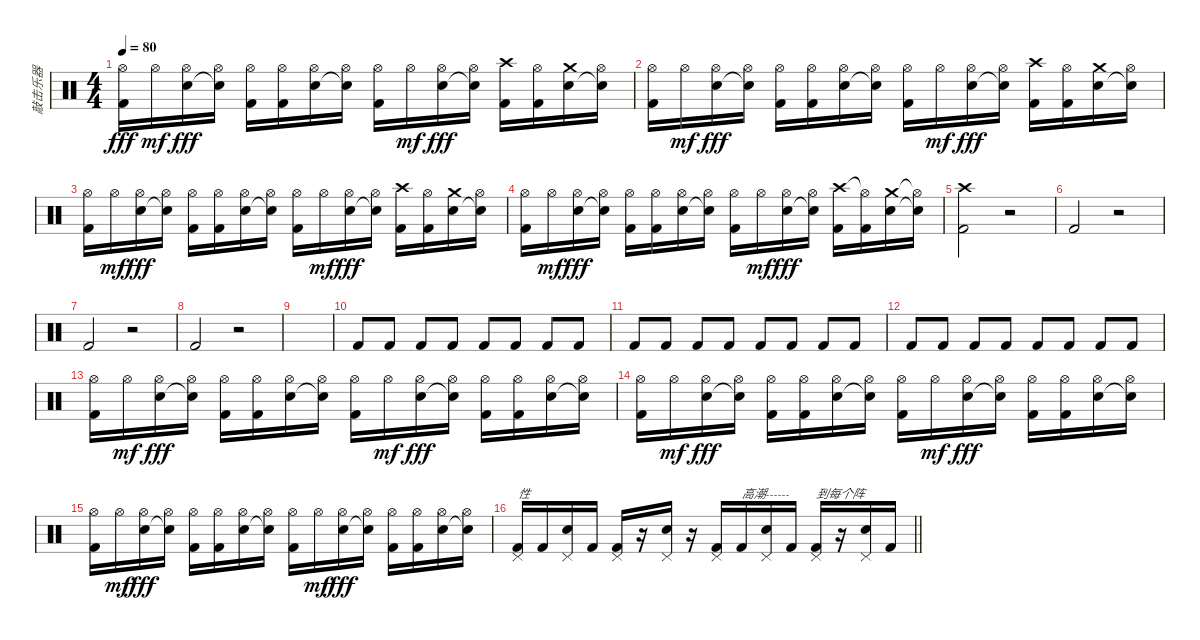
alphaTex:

\track ("敲击乐器" "敲击乐器") {instrument percussion}
\staff {score}
\articulation defaults
\ts (4 4)
\tempo 80
\clef neutral
\ks c
("Hi-Hat (open)" "Kick (hit) 2").16{dy fff} "Hi-Hat (open)".16{dy mf} ("Hi-Hat (open)" "Electric Snare (hit)").16{dy fff} ("Hi-Hat (open)" "Snare (hit)"{t}).16 ("Hi-Hat (open)" "Kick (hit) 2").16 ("Hi-Hat (open)" "Kick (hit) 2").16 ("Hi-Hat (open)" "Electric Snare (hit)").16 ("Hi-Hat (open)" "Snare (hit)"{t}).16 ("Hi-Hat (open)" "Kick (hit) 2").16 "Hi-Hat (open)".16{dy mf} ("Hi-Hat (open)" "Electric Snare (hit)").16{dy fff} ("Hi-Hat (open)" "Snare (hit)"{t}).16 ("Crash high (hit)" "Kick (hit) 2").16 ("Hi-Hat (open)" "Kick (hit) 2").16 ("Crash medium (hit)" "Electric Snare (hit)").16 ("Hi-Hat (open)" "Snare (hit)"{t}).16 |
("Hi-Hat (open)" "Kick (hit) 2").16 "Hi-Hat (open)".16{dy mf} ("Hi-Hat (open)" "Electric Snare (hit)").16{dy fff} ("Hi-Hat (open)" "Snare (hit)"{t}).16 ("Hi-Hat (open)" "Kick (hit) 2").16 ("Hi-Hat (open)" "Kick (hit) 2").16 ("Hi-Hat (open)" "Electric Snare (hit)").16 ("Hi-Hat (open)" "Snare (hit)"{t}).16 ("Hi-Hat (open)" "Kick (hit) 2").16 "Hi-Hat (open)".16{dy mf} ("Hi-Hat (open)" "Electric Snare (hit)").16{dy fff} ("Hi-Hat (open)" "Snare (hit)"{t}).16 ("Crash high (hit)" "Kick (hit) 2").16 ("Hi-Hat (open)" "Kick (hit) 2").16 ("Crash medium (hit)" "Electric Snare (hit)").16 ("Hi-Hat (open)" "Snare (hit)"{t}).16 |
("Hi-Hat (open)" "Kick (hit) 2").16 "Hi-Hat (open)".16{dy mf} ("Hi-Hat (open)" "Electric Snare (hit)").16{dy fff} ("Hi-Hat (open)" "Snare (hit)"{t}).16 ("Hi-Hat (open)" "Kick (hit) 2").16 ("Hi-Hat (open)" "Kick (hit) 2").16 ("Hi-Hat (open)" "Electric Snare (hit)").16 ("Hi-Hat (open)" "Snare (hit)"{t}).16 ("Hi-Hat (open)" "Kick (hit) 2").16 "Hi-Hat (open)".16{dy mf} ("Hi-Hat (open)" "Electric Snare (hit)").16{dy fff} ("Hi-Hat (open)" "Snare (hit)"{t}).16 ("Crash high (hit)" "Kick (hit) 2").16 ("Hi-Hat (open)" "Kick (hit) 2").16 ("Crash medium (hit)" "Electric Snare (hit)").16 ("Hi-Hat (open)" "Snare (hit)"{t}).16 |
("Hi-Hat (open)" "Kick (hit) 2").16 "Hi-Hat (open)".16{dy mf} ("Hi-Hat (open)" "Electric Snare (hit)").16{dy fff} ("Hi-Hat (open)" "Snare (hit)"{t}).16 ("Hi-Hat (open)" "Kick (hit) 2").16 ("Hi-Hat (open)" "Kick (hit) 2").16 ("Hi-Hat (open)" "Electric Snare (hit)").16 ("Hi-Hat (open)" "Snare (hit)"{t}).16 ("Hi-Hat (open)" "Kick (hit) 2").16 "Hi-Hat (open)".16{dy mf} ("Hi-Hat (open)" "Electric Snare (hit)").16{dy fff} ("Hi-Hat (open)" "Snare (hit)"{t}).16 ("Crash high (hit)" "Kick (hit) 2").16 ("Hi-Hat (open)"{t} "Kick (hit) 2").16 ("Crash medium (hit)" "Electric Snare (hit)").16 ("Hi-Hat (open)"{t} "Snare (hit)"{t}).16 |
("Crash high (hit)" "Kick (hit) 2").2 r.2 |
"Kick (hit) 2".2 r.2 |
"Kick (hit) 2".2 r.2 |
"Kick (hit) 2".2 r.2 |
|
"Kick (hit) 2".8 "Kick (hit) 2".8 "Kick (hit) 2".8 "Kick (hit) 2".8 "Kick (hit) 2".8 "Kick (hit) 2".8 "Kick (hit) 2".8 "Kick (hit) 2".8 |
"Kick (hit) 2".8 "Kick (hit) 2".8 "Kick (hit) 2".8 "Kick (hit) 2".8 "Kick (hit) 2".8 "Kick (hit) 2".8 "Kick (hit) 2".8 "Kick (hit) 2".8 |
"Kick (hit) 2".8 "Kick (hit) 2".8 "Kick (hit) 2".8 "Kick (hit) 2".8 "Kick (hit) 2".8 "Kick (hit) 2".8 "Kick (hit) 2".8 "Kick (hit) 2".8 |
("Hi-Hat (open)" "Kick (hit) 2").16 "Hi-Hat (open)".16{dy mf} ("Hi-Hat (open)" "Electric Snare (hit)").16{dy fff} ("Hi-Hat (open)" "Snare (hit)"{t}).16 ("Hi-Hat (open)" "Kick (hit) 2").16 ("Hi-Hat (open)" "Kick (hit) 2").16 ("Hi-Hat (open)" "Electric Snare (hit)").16 ("Hi-Hat (open)" "Snare (hit)"{t}).16 ("Hi-Hat (open)" "Kick (hit) 2").16 "Hi-Hat (open)".16{dy mf} ("Hi-Hat (open)" "Electric Snare (hit)").16{dy fff} ("Hi-Hat (open)" "Snare (hit)"{t}).16 ("Hi-Hat (open)" "Kick (hit) 2").16 ("Hi-Hat (open)" "Kick (hit) 2").16 ("Hi-Hat (open)" "Electric Snare (hit)").16 ("Hi-Hat (open)" "Snare (hit)"{t}).16 |
("Hi-Hat (open)" "Kick (hit) 2").16 "Hi-Hat (open)".16{dy mf} ("Hi-Hat (open)" "Electric Snare (hit)").16{dy fff} ("Hi-Hat (open)" "Snare (hit)"{t}).16 ("Hi-Hat (open)" "Kick (hit) 2").16 ("Hi-Hat (open)" "Kick (hit) 2").16 ("Hi-Hat (open)" "Electric Snare (hit)").16 ("Hi-Hat (open)" "Snare (hit)"{t}).16 ("Hi-Hat (open)" "Kick (hit) 2").16 "Hi-Hat (open)".16{dy mf} ("Hi-Hat (open)" "Electric Snare (hit)").16{dy fff} ("Hi-Hat (open)" "Snare (hit)"{t}).16 ("Hi-Hat (open)" "Kick (hit) 2").16 ("Hi-Hat (open)" "Kick (hit) 2").16 ("Hi-Hat (open)" "Electric Snare (hit)").16 ("Hi-Hat (open)" "Snare (hit)"{t}).16 |
("Hi-Hat (open)" "Kick (hit) 2").16 "Hi-Hat (open)".16{dy mf} ("Hi-Hat (open)" "Electric Snare (hit)").16{dy fff} ("Hi-Hat (open)" "Snare (hit)"{t}).16 ("Hi-Hat (open)" "Kick (hit) 2").16 ("Hi-Hat (open)" "Kick (hit) 2").16 ("Hi-Hat (open)" "Electric Snare (hit)").16 ("Hi-Hat (open)" "Snare (hit)"{t}).16 ("Hi-Hat (open)" "Kick (hit) 2").16 "Hi-Hat (open)".16{dy mf} ("Hi-Hat (open)" "Electric Snare (hit)").16{dy fff} ("Hi-Hat (open)" "Snare (hit)"{t}).16 ("Hi-Hat (open)" "Kick (hit) 2").16 ("Hi-Hat (open)" "Kick (hit) 2").16 ("Hi-Hat (open)" "Electric Snare (hit)").16 ("Hi-Hat (open)" "Snare (hit)"{t}).16 |
\barLineRight lightlight
("Pedal Hi-Hat (hit)" "Kick (hit) 2").16{txt "性"} "Kick (hit) 2".16 ("Pedal Hi-Hat (hit)" "Electric Snare (hit)").16 "Kick (hit) 2".16 ("Pedal Hi-Hat (hit)" "Kick (hit) 2").16 r.16 ("Pedal Hi-Hat (hit)" "Electric Snare (hit)").16 r.16 ("Pedal Hi-Hat (hit)" "Kick (hit) 2").16 "Kick (hit) 2".16{txt "高潮------"} ("Pedal Hi-Hat (hit)" "Electric Snare (hit)").16 "Kick (hit) 2".16 ("Pedal Hi-Hat (hit)" "Kick (hit) 2").16{txt "到每个阵"} r.16 ("Pedal Hi-Hat (hit)" "Electric Snare (hit)").16 "Kick (hit) 2".16
